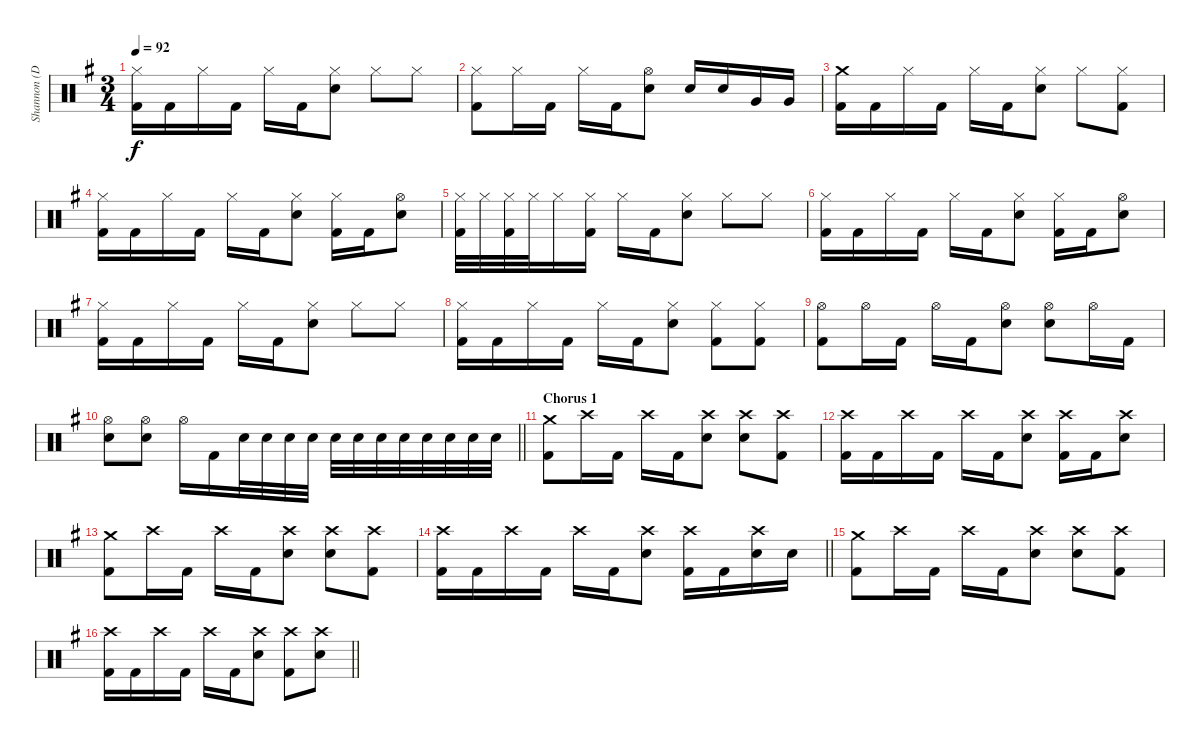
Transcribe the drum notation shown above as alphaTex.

\track ("Shannon (Drums)" "Shannon (D") {instrument percussion}
\staff {score}
\articulation defaults
\ts (3 4)
\tempo 92
\clef neutral
\ks g
("Hi-Hat (closed)" "Kick (hit) 2").16{dy f} "Kick (hit) 2".16 "Hi-Hat (closed)".16 "Kick (hit) 2".16 "Hi-Hat (closed)".16 "Kick (hit) 2".16 ("Hi-Hat (closed)" "Electric Snare (hit)").8 "Hi-Hat (closed)".8 "Hi-Hat (closed)".8 |
("Hi-Hat (closed)" "Kick (hit) 2").8 "Hi-Hat (closed)".16 "Kick (hit) 2".16 "Hi-Hat (closed)".16 "Kick (hit) 2".16 ("Hi-Hat (open)" "Electric Snare (hit)").8 "Electric Snare (hit)".16 "Electric Snare (hit)".16 "Very Low Tom (hit)".16 "Very Low Tom (hit)".16 |
("Crash medium (hit)" "Kick (hit) 2").16 "Kick (hit) 2".16 "Hi-Hat (closed)".16 "Kick (hit) 2".16 "Hi-Hat (closed)".16 "Kick (hit) 2".16 ("Hi-Hat (closed)" "Electric Snare (hit)").8 "Hi-Hat (closed)".8 ("Hi-Hat (closed)" "Kick (hit) 2").8 |
("Hi-Hat (closed)" "Kick (hit) 2").16 "Kick (hit) 2".16 "Hi-Hat (closed)".16 "Kick (hit) 2".16 "Hi-Hat (closed)".16 "Kick (hit) 2".16 ("Hi-Hat (closed)" "Electric Snare (hit)").8 ("Hi-Hat (closed)" "Kick (hit) 2").16 "Kick (hit) 2".16 ("Hi-Hat (open)" "Electric Snare (hit)").8 |
("Hi-Hat (closed)" "Kick (hit) 2").32 "Hi-Hat (closed)".32 ("Hi-Hat (closed)" "Kick (hit) 2").32 "Hi-Hat (closed)".32 "Hi-Hat (closed)".16 ("Hi-Hat (closed)" "Kick (hit) 2").16 "Hi-Hat (closed)".16 "Kick (hit) 2".16 ("Hi-Hat (closed)" "Electric Snare (hit)").8 "Hi-Hat (closed)".8 "Hi-Hat (closed)".8 |
("Hi-Hat (closed)" "Kick (hit) 2").16 "Kick (hit) 2".16 "Hi-Hat (closed)".16 "Kick (hit) 2".16 "Hi-Hat (closed)".16 "Kick (hit) 2".16 ("Hi-Hat (closed)" "Electric Snare (hit)").8 ("Hi-Hat (closed)" "Kick (hit) 2").16 "Kick (hit) 2".16 ("Hi-Hat (open)" "Electric Snare (hit)").8 |
("Hi-Hat (closed)" "Kick (hit) 2").16 "Kick (hit) 2".16 "Hi-Hat (closed)".16 "Kick (hit) 2".16 "Hi-Hat (closed)".16 "Kick (hit) 2".16 ("Hi-Hat (closed)" "Electric Snare (hit)").8 "Hi-Hat (closed)".8 "Hi-Hat (closed)".8 |
("Hi-Hat (closed)" "Kick (hit) 2").16 "Kick (hit) 2".16 "Hi-Hat (closed)".16 "Kick (hit) 2".16 "Hi-Hat (closed)".16 "Kick (hit) 2".16 ("Hi-Hat (closed)" "Electric Snare (hit)").8 ("Hi-Hat (closed)" "Kick (hit) 2").8 ("Hi-Hat (closed)" "Kick (hit) 2").8 |
("Hi-Hat (open)" "Kick (hit) 2").8 "Hi-Hat (open)".16 "Kick (hit) 2".16 "Hi-Hat (open)".16 "Kick (hit) 2".16 ("Hi-Hat (open)" "Electric Snare (hit)").8 ("Hi-Hat (open)" "Electric Snare (hit)").8 "Hi-Hat (open)".16 "Kick (hit) 2".16 |
\barLineRight lightlight
("Hi-Hat (open)" "Electric Snare (hit)").8 ("Hi-Hat (open)" "Electric Snare (hit)").8 "Hi-Hat (open)".16 "Kick (hit) 2".16 "Electric Snare (hit)".32 "Electric Snare (hit)".32 "Electric Snare (hit)".32 "Electric Snare (hit)".32 "Electric Snare (hit)".32 "Electric Snare (hit)".32 "Electric Snare (hit)".32 "Electric Snare (hit)".32 "Electric Snare (hit)".32 "Electric Snare (hit)".32 "Electric Snare (hit)".32 "Electric Snare (hit)".32 |
\section ("" "Chorus 1")
("Crash medium (hit)" "Kick (hit) 2").8 "Crash high (hit)".16 "Kick (hit) 2".16 "Crash high (hit)".16 "Kick (hit) 2".16 ("Crash high (hit)" "Electric Snare (hit)").8 ("Crash high (hit)" "Electric Snare (hit)").8 ("Crash high (hit)" "Kick (hit) 2").8 |
("Crash high (hit)" "Kick (hit) 2").16 "Kick (hit) 2".16 "Crash high (hit)".16 "Kick (hit) 2".16 "Crash high (hit)".16 "Kick (hit) 2".16 ("Crash high (hit)" "Electric Snare (hit)").8 ("Crash high (hit)" "Kick (hit) 2").16 "Kick (hit) 2".16 ("Crash high (hit)" "Electric Snare (hit)").8 |
("Crash medium (hit)" "Kick (hit) 2").8 "Crash high (hit)".16 "Kick (hit) 2".16 "Crash high (hit)".16 "Kick (hit) 2".16 ("Crash high (hit)" "Electric Snare (hit)").8 ("Crash high (hit)" "Electric Snare (hit)").8 ("Crash high (hit)" "Kick (hit) 2").8 |
\barLineRight lightlight
("Crash high (hit)" "Kick (hit) 2").16 "Kick (hit) 2".16 "Crash high (hit)".16 "Kick (hit) 2".16 "Crash high (hit)".16 "Kick (hit) 2".16 ("Crash high (hit)" "Electric Snare (hit)").8 ("Crash high (hit)" "Kick (hit) 2").16 "Kick (hit) 2".16 ("Crash high (hit)" "Electric Snare (hit)").16 "Electric Snare (hit)".16 |
("Crash medium (hit)" "Kick (hit) 2").8 "Crash high (hit)".16 "Kick (hit) 2".16 "Crash high (hit)".16 "Kick (hit) 2".16 ("Crash high (hit)" "Electric Snare (hit)").8 ("Crash high (hit)" "Electric Snare (hit)").8 ("Crash high (hit)" "Kick (hit) 2").8 |
\barLineRight lightlight
("Crash high (hit)" "Kick (hit) 2").16 "Kick (hit) 2".16 "Crash high (hit)".16 "Kick (hit) 2".16 "Crash high (hit)".16 "Kick (hit) 2".16 ("Crash high (hit)" "Electric Snare (hit)").8 ("Crash high (hit)" "Kick (hit) 2").8 ("Crash high (hit)" "Electric Snare (hit)").8
